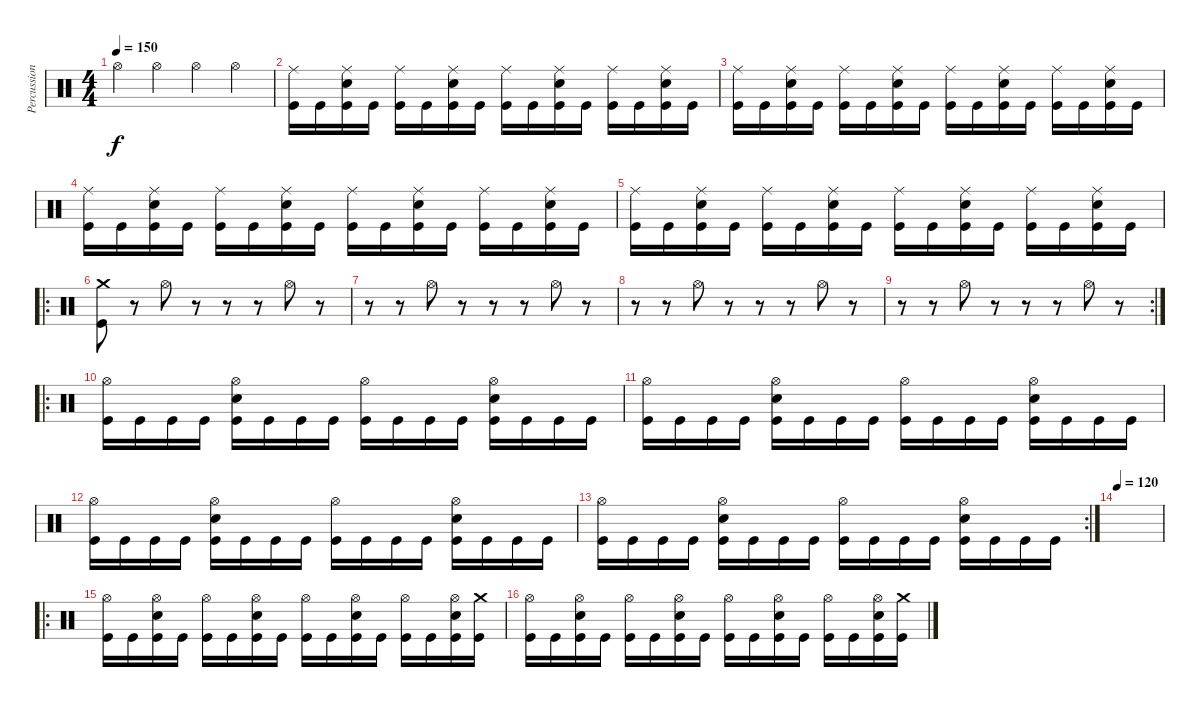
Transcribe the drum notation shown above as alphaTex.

\track ("Percussion" "Percussion") {instrument percussion}
\staff {score}
\articulation defaults
\ts (4 4)
\tempo 150
\clef neutral
\ks c "Hi-Hat (open)".4{dy f} "Hi-Hat (open)".4 "Hi-Hat (open)".4 "Hi-Hat (open)".4
|
("Ride (middle)" "Kick (hit)").16 "Kick (hit)".16 ("Ride (middle)" "Snare (hit) 2" "Kick (hit)").16 "Kick (hit)".16 ("Ride (middle)" "Kick (hit)").16 "Kick (hit)".16 ("Ride (middle)" "Snare (hit) 2" "Kick (hit)").16 "Kick (hit)".16 ("Ride (middle)" "Kick (hit)").16 "Kick (hit)".16 ("Ride (middle)" "Snare (hit) 2" "Kick (hit)").16 "Kick (hit)".16 ("Ride (middle)" "Kick (hit)").16 "Kick (hit)".16 ("Ride (middle)" "Snare (hit) 2" "Kick (hit)").16 "Kick (hit)".16 |
("Ride (middle)" "Kick (hit)").16 "Kick (hit)".16 ("Ride (middle)" "Snare (hit) 2" "Kick (hit)").16 "Kick (hit)".16 ("Ride (middle)" "Kick (hit)").16 "Kick (hit)".16 ("Ride (middle)" "Snare (hit) 2" "Kick (hit)").16 "Kick (hit)".16 ("Ride (middle)" "Kick (hit)").16 "Kick (hit)".16 ("Ride (middle)" "Snare (hit) 2" "Kick (hit)").16 "Kick (hit)".16 ("Ride (middle)" "Kick (hit)").16 "Kick (hit)".16 ("Ride (middle)" "Snare (hit) 2" "Kick (hit)").16 "Kick (hit)".16 |
("Ride (middle)" "Kick (hit)").16 "Kick (hit)".16 ("Ride (middle)" "Snare (hit) 2" "Kick (hit)").16 "Kick (hit)".16 ("Ride (middle)" "Kick (hit)").16 "Kick (hit)".16 ("Ride (middle)" "Snare (hit) 2" "Kick (hit)").16 "Kick (hit)".16 ("Ride (middle)" "Kick (hit)").16 "Kick (hit)".16 ("Ride (middle)" "Snare (hit) 2" "Kick (hit)").16 "Kick (hit)".16 ("Ride (middle)" "Kick (hit)").16 "Kick (hit)".16 ("Ride (middle)" "Snare (hit) 2" "Kick (hit)").16 "Kick (hit)".16 |
("Ride (middle)" "Kick (hit)").16 "Kick (hit)".16 ("Ride (middle)" "Snare (hit) 2" "Kick (hit)").16 "Kick (hit)".16 ("Ride (middle)" "Kick (hit)").16 "Kick (hit)".16 ("Ride (middle)" "Snare (hit) 2" "Kick (hit)").16 "Kick (hit)".16 ("Ride (middle)" "Kick (hit)").16 "Kick (hit)".16 ("Ride (middle)" "Snare (hit) 2" "Kick (hit)").16 "Kick (hit)".16 ("Ride (middle)" "Kick (hit)").16 "Kick (hit)".16 ("Ride (middle)" "Snare (hit) 2" "Kick (hit)").16 "Kick (hit)".16 |
\ro
("Crash medium (hit)" "Kick (hit)").8 r.8 "Hi-Hat (open)".8 r.8 r.8 r.8 "Hi-Hat (open)".8 r.8 |
r.8 r.8 "Hi-Hat (open)".8 r.8 r.8 r.8 "Hi-Hat (open)".8 r.8 |
r.8 r.8 "Hi-Hat (open)".8 r.8 r.8 r.8 "Hi-Hat (open)".8 r.8 |
\rc 2
r.8 r.8 "Hi-Hat (open)".8 r.8 r.8 r.8 "Hi-Hat (open)".8 r.8 |
\ro
("Hi-Hat (open)" "Kick (hit)").16 "Kick (hit)".16 "Kick (hit)".16 "Kick (hit)".16 ("Hi-Hat (open)" "Snare (hit) 2" "Kick (hit)").16 "Kick (hit)".16 "Kick (hit)".16 "Kick (hit)".16 ("Hi-Hat (open)" "Kick (hit)").16 "Kick (hit)".16 "Kick (hit)".16 "Kick (hit)".16 ("Hi-Hat (open)" "Snare (hit) 2" "Kick (hit)").16 "Kick (hit)".16 "Kick (hit)".16 "Kick (hit)".16 |
("Hi-Hat (open)" "Kick (hit)").16 "Kick (hit)".16 "Kick (hit)".16 "Kick (hit)".16 ("Hi-Hat (open)" "Snare (hit) 2" "Kick (hit)").16 "Kick (hit)".16 "Kick (hit)".16 "Kick (hit)".16 ("Hi-Hat (open)" "Kick (hit)").16 "Kick (hit)".16 "Kick (hit)".16 "Kick (hit)".16 ("Hi-Hat (open)" "Snare (hit) 2" "Kick (hit)").16 "Kick (hit)".16 "Kick (hit)".16 "Kick (hit)".16 |
("Hi-Hat (open)" "Kick (hit)").16 "Kick (hit)".16 "Kick (hit)".16 "Kick (hit)".16 ("Hi-Hat (open)" "Snare (hit) 2" "Kick (hit)").16 "Kick (hit)".16 "Kick (hit)".16 "Kick (hit)".16 ("Hi-Hat (open)" "Kick (hit)").16 "Kick (hit)".16 "Kick (hit)".16 "Kick (hit)".16 ("Hi-Hat (open)" "Snare (hit) 2" "Kick (hit)").16 "Kick (hit)".16 "Kick (hit)".16 "Kick (hit)".16 |
\rc 2
("Hi-Hat (open)" "Kick (hit)").16 "Kick (hit)".16 "Kick (hit)".16 "Kick (hit)".16 ("Hi-Hat (open)" "Snare (hit) 2" "Kick (hit)").16 "Kick (hit)".16 "Kick (hit)".16 "Kick (hit)".16 ("Hi-Hat (open)" "Kick (hit)").16 "Kick (hit)".16 "Kick (hit)".16 "Kick (hit)".16 ("Hi-Hat (open)" "Snare (hit) 2" "Kick (hit)").16 "Kick (hit)".16 "Kick (hit)".16 "Kick (hit)".16 |
\tempo 120
|
\ro
("Hi-Hat (open)" "Kick (hit)").16 "Kick (hit)".16 ("Hi-Hat (open)" "Snare (hit) 2" "Kick (hit)").16 "Kick (hit)".16 ("Hi-Hat (open)" "Kick (hit)").16 "Kick (hit)".16 ("Hi-Hat (open)" "Snare (hit) 2" "Kick (hit)").16 "Kick (hit)".16 ("Hi-Hat (open)" "Kick (hit)").16 "Kick (hit)".16 ("Hi-Hat (open)" "Snare (hit) 2" "Kick (hit)").16 "Kick (hit)".16 ("Hi-Hat (open)" "Kick (hit)").16 "Kick (hit)".16 ("Hi-Hat (open)" "Snare (hit) 2" "Kick (hit)").16 ("Crash medium (hit)" "Kick (hit)").16 |
("Hi-Hat (open)" "Kick (hit)").16 "Kick (hit)".16 ("Hi-Hat (open)" "Snare (hit) 2" "Kick (hit)").16 "Kick (hit)".16 ("Hi-Hat (open)" "Kick (hit)").16 "Kick (hit)".16 ("Hi-Hat (open)" "Snare (hit) 2" "Kick (hit)").16 "Kick (hit)".16 ("Hi-Hat (open)" "Kick (hit)").16 "Kick (hit)".16 ("Hi-Hat (open)" "Snare (hit) 2" "Kick (hit)").16 "Kick (hit)".16 ("Hi-Hat (open)" "Kick (hit)").16 "Kick (hit)".16 ("Hi-Hat (open)" "Snare (hit) 2" "Kick (hit)").16 ("Crash medium (hit)" "Kick (hit)").16
